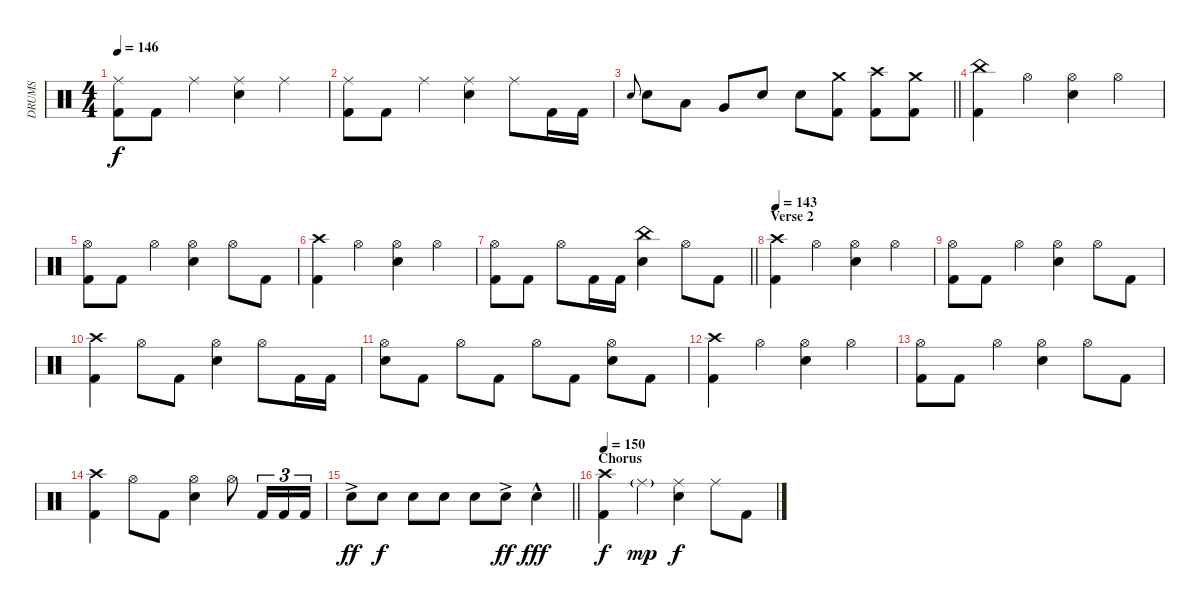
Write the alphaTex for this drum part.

\track ("DRUMS" "DRUMS") {instrument percussion}
\staff {score}
\articulation defaults
\ts (4 4)
\tempo 146
\clef neutral
\ks c
("Ride (middle)" "Kick (hit) 2").8{dy f} "Kick (hit) 2".8 "Ride (middle)".4 ("Ride (middle)" "Snare (hit) 2").4 "Ride (middle)".4 |
("Ride (middle)" "Kick (hit) 2").8 "Kick (hit) 2".8 "Ride (middle)".4 ("Ride (middle)" "Snare (hit) 2").4 "Ride (middle)".8 "Kick (hit) 2".16 "Kick (hit) 2".16 |
\barLineRight lightlight "Snare (hit) 2".8{gr onbeat} "Snare (hit) 2".8 "Low Tom (hit)".8 "Very Low Tom (hit)".8 "Snare (hit) 2".8 "Snare (hit) 2".8
("Crash medium (hit)" "Kick (hit) 2").8 ("Crash high (hit)" "Kick (hit) 2").8 ("Crash medium (hit)" "Kick (hit) 2").8 |
("China (hit)" "Kick (hit) 2").4 "Hi-Hat (open)".4 ("Hi-Hat (open)" "Snare (hit) 2").4 "Hi-Hat (open)".4 |
("Hi-Hat (open)" "Kick (hit) 2").8 "Kick (hit) 2".8 "Hi-Hat (open)".4 ("Hi-Hat (open)" "Snare (hit) 2").4 "Hi-Hat (open)".8 "Kick (hit) 2".8 |
("Crash high (hit)" "Kick (hit) 2").4 "Hi-Hat (open)".4 ("Hi-Hat (open)" "Snare (hit) 2").4 "Hi-Hat (open)".4 |
\barLineRight lightlight
("Hi-Hat (open)" "Kick (hit) 2").8 "Kick (hit) 2".8 "Hi-Hat (open)".8 "Kick (hit) 2".16 "Kick (hit) 2".16 ("China (hit)" "Snare (hit) 2").4 "Hi-Hat (open)".8 "Kick (hit) 2".8 |
\section ("" "Verse 2")
\tempo 143
("Crash high (hit)" "Kick (hit) 2").4 "Hi-Hat (open)".4 ("Hi-Hat (open)" "Snare (hit) 2").4 "Hi-Hat (open)".4 |
("Hi-Hat (open)" "Kick (hit) 2").8 "Kick (hit) 2".8 "Hi-Hat (open)".4 ("Hi-Hat (open)" "Snare (hit) 2").4 "Hi-Hat (open)".8 "Kick (hit) 2".8 |
("Crash high (hit)" "Kick (hit) 2").4 "Hi-Hat (open)".8 "Kick (hit) 2".8 ("Hi-Hat (open)" "Snare (hit) 2").4 "Hi-Hat (open)".8 "Kick (hit) 2".16 "Kick (hit) 2".16 |
("Hi-Hat (open)" "Snare (hit) 2").8 "Kick (hit) 2".8 "Hi-Hat (open)".8 "Kick (hit) 2".8 "Hi-Hat (open)".8 "Kick (hit) 2".8 ("Hi-Hat (open)" "Snare (hit) 2").8 "Kick (hit) 2".8 |
("Crash high (hit)" "Kick (hit) 2").4 "Hi-Hat (open)".4 ("Hi-Hat (open)" "Snare (hit) 2").4 "Hi-Hat (open)".4 |
("Hi-Hat (open)" "Kick (hit) 2").8 "Kick (hit) 2".8 "Hi-Hat (open)".4 ("Hi-Hat (open)" "Snare (hit) 2").4 "Hi-Hat (open)".8 "Kick (hit) 2".8 |
("Crash high (hit)" "Kick (hit) 2").4 "Hi-Hat (open)".8 "Kick (hit) 2".8 ("Hi-Hat (open)" "Snare (hit) 2").4 "Hi-Hat (open)".8 "Kick (hit) 2".16{tu (3 2)} "Kick (hit) 2".16{tu (3 2)} "Kick (hit) 2".16{tu (3 2)} |
\barLineRight lightlight "Snare (hit) 2"{ac}.8{dy ff} "Snare (hit) 2".8{dy f} "Snare (hit) 2".8 "Snare (hit) 2".8 "Snare (hit) 2".8 "Snare (hit) 2"{ac}.8{dy ff} "Snare (hit) 2"{hac}.4{dy fff}
|
\section ("" "Chorus")
\tempo 150
("Crash high (hit)" "Kick (hit) 2").4{dy f} "Ride (middle)"{g}.4{dy mp} ("Ride (middle)" "Snare (hit) 2").4{dy f} "Ride (middle)".8 "Kick (hit) 2".8
